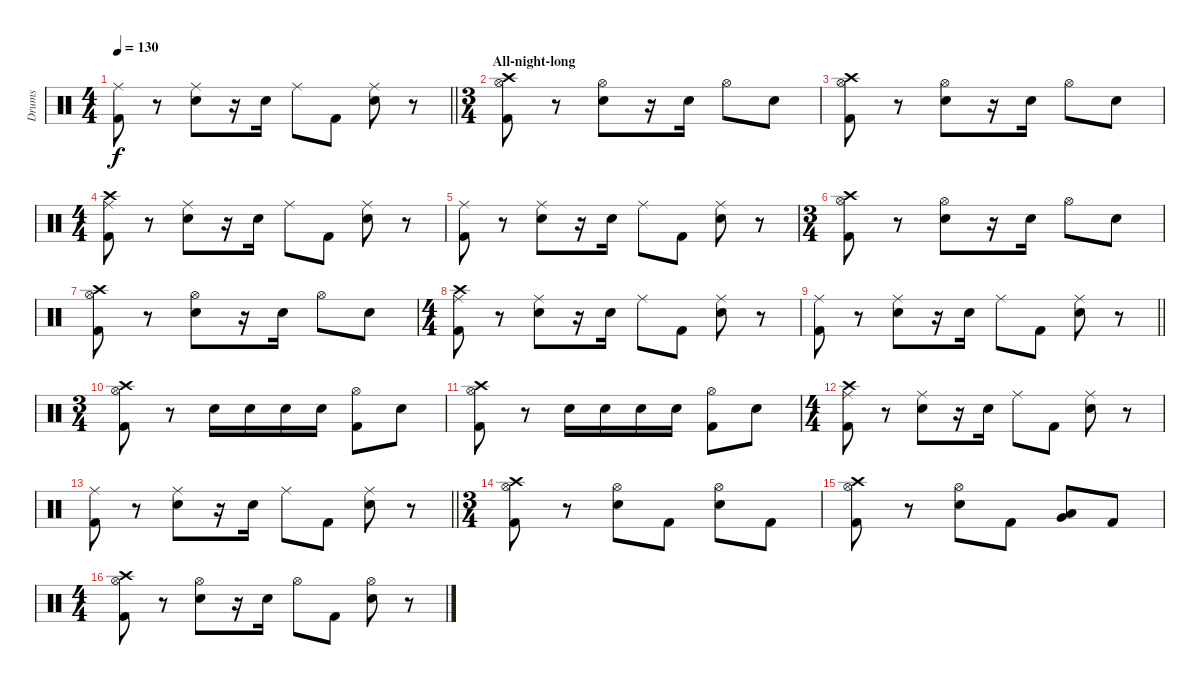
\track ("Drums" "Drums") {instrument percussion}
\staff {score}
\articulation defaults
\ts (4 4)
\tempo 130
\clef neutral
\barLineRight lightlight
\ks c
("Ride (middle)" "Kick (hit) 2").8{dy f} r.8 ("Ride (middle)" "Snare (hit) 2").8 r.16 "Snare (hit) 2".16 "Ride (middle)".8 "Kick (hit) 2".8 ("Ride (middle)" "Snare (hit) 2").8 r.8 |
\ts (3 4)
\section ("" "All-night-long")
("Crash high (hit)" "Hi-Hat (open)" "Kick (hit) 2").8 r.8 ("Hi-Hat (open)" "Snare (hit) 2").8 r.16 "Snare (hit) 2".16 "Hi-Hat (open)".8 "Snare (hit) 2".8 |
("Crash high (hit)" "Hi-Hat (open)" "Kick (hit) 2").8 r.8 ("Hi-Hat (open)" "Snare (hit) 2").8 r.16 "Snare (hit) 2".16 "Hi-Hat (open)".8 "Snare (hit) 2".8 |
\ts (4 4)
("Crash high (hit)" "Ride (middle)" "Kick (hit) 2").8 r.8 ("Ride (middle)" "Snare (hit) 2").8 r.16 "Snare (hit) 2".16 "Ride (middle)".8 "Kick (hit) 2".8 ("Ride (middle)" "Snare (hit) 2").8 r.8 |
("Ride (middle)" "Kick (hit) 2").8 r.8 ("Ride (middle)" "Snare (hit) 2").8 r.16 "Snare (hit) 2".16 "Ride (middle)".8 "Kick (hit) 2".8 ("Ride (middle)" "Snare (hit) 2").8 r.8 |
\ts (3 4)
("Crash high (hit)" "Hi-Hat (open)" "Kick (hit) 2").8 r.8 ("Hi-Hat (open)" "Snare (hit) 2").8 r.16 "Snare (hit) 2".16 "Hi-Hat (open)".8 "Snare (hit) 2".8 |
("Crash high (hit)" "Hi-Hat (open)" "Kick (hit) 2").8 r.8 ("Hi-Hat (open)" "Snare (hit) 2").8 r.16 "Snare (hit) 2".16 "Hi-Hat (open)".8 "Snare (hit) 2".8 |
\ts (4 4)
("Crash high (hit)" "Ride (middle)" "Kick (hit) 2").8 r.8 ("Ride (middle)" "Snare (hit) 2").8 r.16 "Snare (hit) 2".16 "Ride (middle)".8 "Kick (hit) 2".8 ("Ride (middle)" "Snare (hit) 2").8 r.8 |
\barLineRight lightlight
("Ride (middle)" "Kick (hit) 2").8 r.8 ("Ride (middle)" "Snare (hit) 2").8 r.16 "Snare (hit) 2".16 "Ride (middle)".8 "Kick (hit) 2".8 ("Ride (middle)" "Snare (hit) 2").8 r.8 |
\ts (3 4)
\section ("" "")
("Crash high (hit)" "Hi-Hat (open)" "Kick (hit) 2").8 r.8 "Snare (hit) 2".16 "Snare (hit) 2".16 "Snare (hit) 2".16 "Snare (hit) 2".16 ("Hi-Hat (open)" "Kick (hit) 2").8 "Snare (hit) 2".8 |
("Crash high (hit)" "Hi-Hat (open)" "Kick (hit) 2").8 r.8 "Snare (hit) 2".16 "Snare (hit) 2".16 "Snare (hit) 2".16 "Snare (hit) 2".16 ("Hi-Hat (open)" "Kick (hit) 2").8 "Snare (hit) 2".8 |
\ts (4 4)
("Crash high (hit)" "Ride (middle)" "Kick (hit) 2").8 r.8 ("Ride (middle)" "Snare (hit) 2").8 r.16 "Snare (hit) 2".16 "Ride (middle)".8 "Kick (hit) 2".8 ("Ride (middle)" "Snare (hit) 2").8 r.8 |
\barLineRight lightlight
("Ride (middle)" "Kick (hit) 2").8 r.8 ("Ride (middle)" "Snare (hit) 2").8 r.16 "Snare (hit) 2".16 "Ride (middle)".8 "Kick (hit) 2".8 ("Ride (middle)" "Snare (hit) 2").8 r.8 |
\ts (3 4)
\section ("" "")
("Crash high (hit)" "Hi-Hat (open)" "Kick (hit) 2").8 r.8 ("Hi-Hat (open)" "Snare (hit) 2").8 "Kick (hit) 2".8 ("Hi-Hat (open)" "Snare (hit) 2").8 "Kick (hit) 2".8 |
("Crash high (hit)" "Hi-Hat (open)" "Kick (hit) 2").8 r.8 ("Hi-Hat (open)" "Snare (hit) 2").8 "Kick (hit) 2".8 ("Very Low Tom (hit)" "Low Floor Tom (hit)").8 "Kick (hit) 2".8 |
\ts (4 4)
("Crash high (hit)" "Hi-Hat (open)" "Kick (hit) 2").8 r.8 ("Hi-Hat (open)" "Snare (hit) 2").8 r.16 "Snare (hit) 2".16 "Hi-Hat (open)".8 "Kick (hit) 2".8 ("Hi-Hat (open)" "Snare (hit) 2").8 r.8
